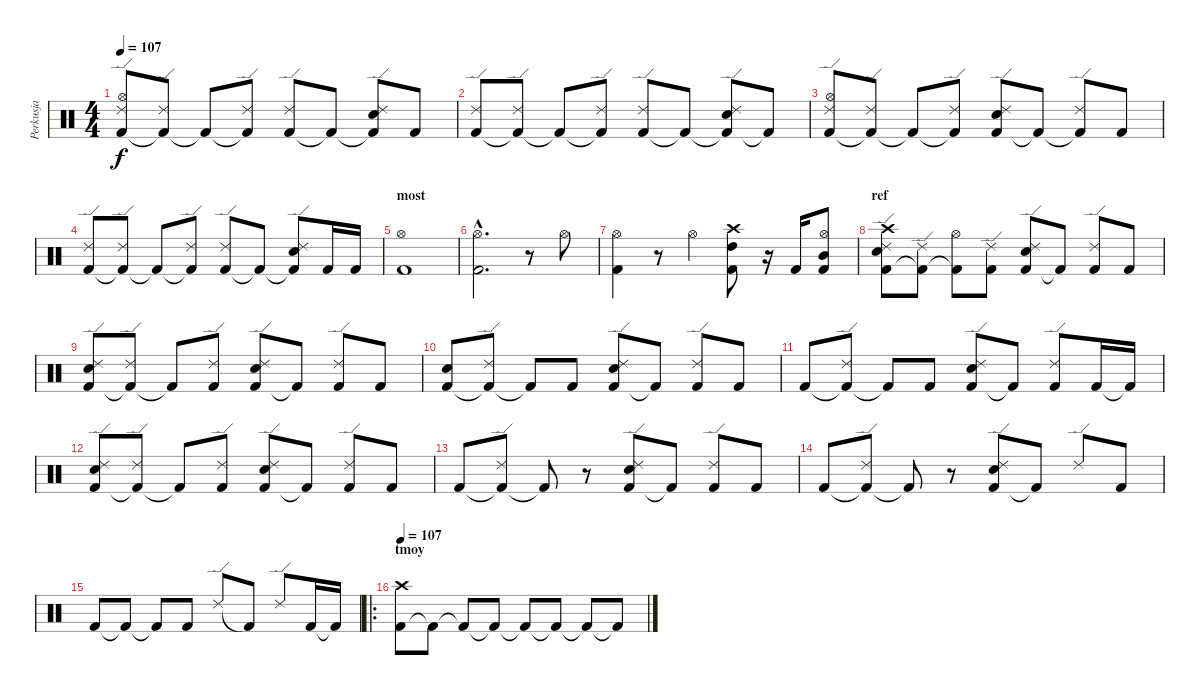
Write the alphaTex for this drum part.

\track ("Perkusja" "Perkusja") {instrument percussion}
\staff {score}
\articulation defaults
\ts (4 4)
\tempo 107
\clef neutral
\ks c
("Kick (hit) 2" "Hi-Hat (open)" "Ride (edge) 2").8{dy f} ("Kick (hit) 2"{t} "Ride (edge) 2").8 "Kick (hit) 2"{t}.8 ("Kick (hit) 2"{t} "Ride (edge) 2").8 ("Kick (hit) 2" "Ride (edge) 2").8 "Kick (hit) 2"{t}.8 ("Kick (hit) 2"{t} "Snare (hit) 2" "Ride (edge) 2").8 "Kick (hit) 2".8 |
("Kick (hit) 2" "Ride (edge) 2").8 ("Kick (hit) 2"{t} "Ride (edge) 2").8 "Kick (hit) 2"{t}.8 ("Kick (hit) 2"{t} "Ride (edge) 2").8 ("Kick (hit) 2" "Ride (edge) 2").8 "Kick (hit) 2"{t}.8 ("Kick (hit) 2"{t} "Snare (hit) 2" "Ride (edge) 2").8 "Kick (hit) 2"{t}.8 |
("Kick (hit) 2" "Ride (edge) 2" "Hi-Hat (open)").8 ("Kick (hit) 2"{t} "Ride (edge) 2").8 "Kick (hit) 2"{t}.8 ("Kick (hit) 2"{t} "Ride (edge) 2").8 ("Kick (hit) 2" "Snare (hit) 2" "Ride (edge) 2").8 "Kick (hit) 2"{t}.8 ("Kick (hit) 2"{t} "Ride (edge) 2").8 "Kick (hit) 2".8 |
("Kick (hit) 2" "Ride (edge) 2").8 ("Kick (hit) 2"{t} "Ride (edge) 2").8 "Kick (hit) 2"{t}.8 ("Kick (hit) 2"{t} "Ride (edge) 2").8 ("Kick (hit) 2" "Ride (edge) 2").8 "Kick (hit) 2"{t}.8 ("Kick (hit) 2"{t} "Snare (hit) 2" "Ride (edge) 2").8 "Kick (hit) 2".16 "Kick (hit) 2".16 |
\section ("" "most")
("Kick (hit) 2" "Hi-Hat (open)").1 |
("Kick (hit) 2"{hac} "Hi-Hat (open)"{hac}).2{d} r.8 "Hi-Hat (open)".8 |
("Kick (hit) 2" "Hi-Hat (open)").4 r.8 "Hi-Hat (open)".4 ("Kick (hit) 2" "High Tom (hit)" "Crash high (hit)").8 r.16 "Kick (hit) 2".16 ("Kick (hit) 2" "Mid Tom (hit)" "Hi-Hat (open)").8 |
\section ("" "ref")
("Kick (hit) 2" "Snare (hit) 2" "Ride (edge) 2" "Crash high (hit)").8 ("Kick (hit) 2"{t} "Ride (edge) 2").8 ("Kick (hit) 2"{t} "Hi-Hat (open)").8 ("Kick (hit) 2" "Ride (edge) 2").8 ("Kick (hit) 2" "Snare (hit) 2" "Ride (edge) 2").8 "Kick (hit) 2"{t}.8 ("Kick (hit) 2" "Ride (edge) 2").8 "Kick (hit) 2".8 |
("Kick (hit) 2" "Snare (hit) 2" "Ride (edge) 2").8 ("Kick (hit) 2"{t} "Ride (edge) 2").8 "Kick (hit) 2"{t}.8 ("Kick (hit) 2" "Ride (edge) 2").8 ("Kick (hit) 2" "Snare (hit) 2" "Ride (edge) 2").8 "Kick (hit) 2"{t}.8 ("Kick (hit) 2" "Ride (edge) 2").8 "Kick (hit) 2".8 |
("Kick (hit) 2" "Snare (hit) 2").8 ("Kick (hit) 2"{t} "Ride (edge) 2").8 "Kick (hit) 2"{t}.8 "Kick (hit) 2".8 ("Kick (hit) 2" "Snare (hit) 2" "Ride (edge) 2").8 "Kick (hit) 2"{t}.8 ("Kick (hit) 2" "Ride (edge) 2").8 "Kick (hit) 2".8 |
"Kick (hit) 2".8 ("Kick (hit) 2"{t} "Ride (edge) 2").8 "Kick (hit) 2"{t}.8 "Kick (hit) 2".8 ("Kick (hit) 2" "Snare (hit) 2" "Ride (edge) 2").8 "Kick (hit) 2"{t}.8 ("Kick (hit) 2" "Ride (edge) 2").8 "Kick (hit) 2".16 "Kick (hit) 2"{t}.16 |
("Kick (hit) 2" "Snare (hit) 2" "Ride (edge) 2").8 ("Kick (hit) 2"{t} "Ride (edge) 2").8 "Kick (hit) 2"{t}.8 ("Kick (hit) 2" "Ride (edge) 2").8 ("Kick (hit) 2" "Snare (hit) 2" "Ride (edge) 2").8 "Kick (hit) 2"{t}.8 ("Kick (hit) 2" "Ride (edge) 2").8 "Kick (hit) 2".8 |
"Kick (hit) 2".8 ("Kick (hit) 2"{t} "Ride (edge) 2").8 "Kick (hit) 2"{t}.8 r.8 ("Kick (hit) 2" "Snare (hit) 2" "Ride (edge) 2").8 "Kick (hit) 2"{t}.8 ("Kick (hit) 2" "Ride (edge) 2").8 "Kick (hit) 2".8 |
"Kick (hit) 2".8 ("Kick (hit) 2"{t} "Ride (edge) 2").8 "Kick (hit) 2"{t}.8 r.8 ("Kick (hit) 2" "Snare (hit) 2" "Ride (edge) 2").8 "Kick (hit) 2"{t}.8 "Ride (edge) 2".8 "Kick (hit) 2".8 |
"Kick (hit) 2".8 "Kick (hit) 2"{t}.8 "Kick (hit) 2"{t}.8 "Kick (hit) 2".8 "Ride (edge) 2".8 "Kick (hit) 2"{t}.8 "Ride (edge) 2".8 "Kick (hit) 2".16 "Kick (hit) 2"{t}.16 |
\ro
\section ("" "tmoy")
\tempo 107
("Kick (hit) 2" "Crash high (hit)").8 "Kick (hit) 2"{t}.8 "Kick (hit) 2"{t}.8 "Kick (hit) 2"{t}.8 "Kick (hit) 2"{t}.8 "Kick (hit) 2"{t}.8 "Kick (hit) 2"{t}.8 "Kick (hit) 2"{t}.8
